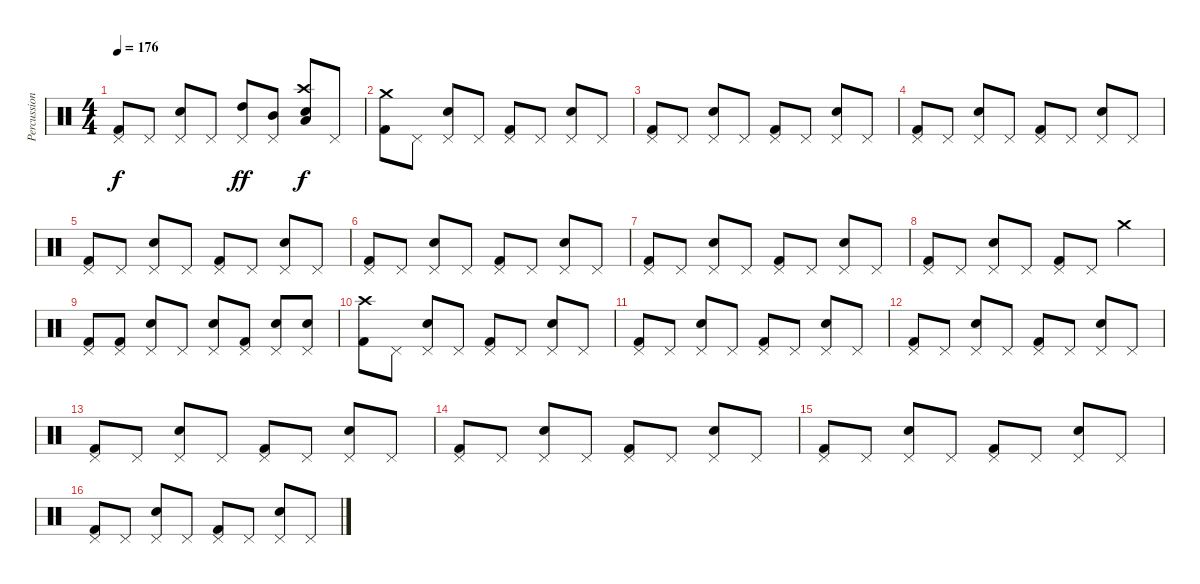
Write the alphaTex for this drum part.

\track ("Percussions" "Percussion") {instrument percussion}
\staff {score}
\articulation defaults
\ts (4 4)
\tempo 176
\clef neutral
\ks c
("Pedal Hi-Hat (hit)" "Kick (hit) 2").8{dy f} "Pedal Hi-Hat (hit)".8 ("Pedal Hi-Hat (hit)" "Electric Snare (hit)").8 "Pedal Hi-Hat (hit)".8 ("Pedal Hi-Hat (hit)" "High Tom (hit)").8{dy ff} ("Pedal Hi-Hat (hit)" "Mid Tom (hit)").8 ("Crash high (hit)" "Low Tom (hit)" "Electric Snare (hit)").8{dy f} "Pedal Hi-Hat (hit)".8 |
("Crash medium (hit)" "Kick (hit) 2").8 "Pedal Hi-Hat (hit)".8 ("Pedal Hi-Hat (hit)" "Electric Snare (hit)").8 "Pedal Hi-Hat (hit)".8 ("Pedal Hi-Hat (hit)" "Kick (hit) 2").8 "Pedal Hi-Hat (hit)".8 ("Pedal Hi-Hat (hit)" "Electric Snare (hit)").8 "Pedal Hi-Hat (hit)".8 |
("Pedal Hi-Hat (hit)" "Kick (hit) 2").8 "Pedal Hi-Hat (hit)".8 ("Pedal Hi-Hat (hit)" "Electric Snare (hit)").8 "Pedal Hi-Hat (hit)".8 ("Pedal Hi-Hat (hit)" "Kick (hit) 2").8 "Pedal Hi-Hat (hit)".8 ("Pedal Hi-Hat (hit)" "Electric Snare (hit)").8 "Pedal Hi-Hat (hit)".8 |
("Pedal Hi-Hat (hit)" "Kick (hit) 2").8 "Pedal Hi-Hat (hit)".8 ("Pedal Hi-Hat (hit)" "Electric Snare (hit)").8 "Pedal Hi-Hat (hit)".8 ("Pedal Hi-Hat (hit)" "Kick (hit) 2").8 "Pedal Hi-Hat (hit)".8 ("Pedal Hi-Hat (hit)" "Electric Snare (hit)").8 "Pedal Hi-Hat (hit)".8 |
("Pedal Hi-Hat (hit)" "Kick (hit) 2").8 "Pedal Hi-Hat (hit)".8 ("Pedal Hi-Hat (hit)" "Electric Snare (hit)").8 "Pedal Hi-Hat (hit)".8 ("Pedal Hi-Hat (hit)" "Kick (hit) 2").8 "Pedal Hi-Hat (hit)".8 ("Pedal Hi-Hat (hit)" "Electric Snare (hit)").8 "Pedal Hi-Hat (hit)".8 |
("Pedal Hi-Hat (hit)" "Kick (hit) 2").8 "Pedal Hi-Hat (hit)".8 ("Pedal Hi-Hat (hit)" "Electric Snare (hit)").8 "Pedal Hi-Hat (hit)".8 ("Pedal Hi-Hat (hit)" "Kick (hit) 2").8 "Pedal Hi-Hat (hit)".8 ("Pedal Hi-Hat (hit)" "Electric Snare (hit)").8 "Pedal Hi-Hat (hit)".8 |
("Pedal Hi-Hat (hit)" "Kick (hit) 2").8 "Pedal Hi-Hat (hit)".8 ("Pedal Hi-Hat (hit)" "Electric Snare (hit)").8 "Pedal Hi-Hat (hit)".8 ("Pedal Hi-Hat (hit)" "Kick (hit) 2").8 "Pedal Hi-Hat (hit)".8 ("Pedal Hi-Hat (hit)" "Electric Snare (hit)").8 "Pedal Hi-Hat (hit)".8 |
("Pedal Hi-Hat (hit)" "Kick (hit) 2").8 "Pedal Hi-Hat (hit)".8 ("Pedal Hi-Hat (hit)" "Electric Snare (hit)").8 "Pedal Hi-Hat (hit)".8 ("Pedal Hi-Hat (hit)" "Kick (hit) 2").8 "Pedal Hi-Hat (hit)".8 "Crash medium (hit)".4 |
("Pedal Hi-Hat (hit)" "Kick (hit) 2").8 ("Pedal Hi-Hat (hit)" "Kick (hit) 2").8 ("Pedal Hi-Hat (hit)" "Electric Snare (hit)").8 "Pedal Hi-Hat (hit)".8 ("Pedal Hi-Hat (hit)" "Electric Snare (hit)").8 ("Pedal Hi-Hat (hit)" "Kick (hit) 2").8 ("Pedal Hi-Hat (hit)" "Electric Snare (hit)").8 ("Pedal Hi-Hat (hit)" "Electric Snare (hit)").8 |
("Crash high (hit)" "Kick (hit) 2").8 "Pedal Hi-Hat (hit)".8 ("Pedal Hi-Hat (hit)" "Electric Snare (hit)").8 "Pedal Hi-Hat (hit)".8 ("Pedal Hi-Hat (hit)" "Kick (hit) 2").8 "Pedal Hi-Hat (hit)".8 ("Pedal Hi-Hat (hit)" "Electric Snare (hit)").8 "Pedal Hi-Hat (hit)".8 |
("Pedal Hi-Hat (hit)" "Kick (hit) 2").8 "Pedal Hi-Hat (hit)".8 ("Pedal Hi-Hat (hit)" "Electric Snare (hit)").8 "Pedal Hi-Hat (hit)".8 ("Pedal Hi-Hat (hit)" "Kick (hit) 2").8 "Pedal Hi-Hat (hit)".8 ("Pedal Hi-Hat (hit)" "Electric Snare (hit)").8 "Pedal Hi-Hat (hit)".8 |
("Pedal Hi-Hat (hit)" "Kick (hit) 2").8 "Pedal Hi-Hat (hit)".8 ("Pedal Hi-Hat (hit)" "Electric Snare (hit)").8 "Pedal Hi-Hat (hit)".8 ("Pedal Hi-Hat (hit)" "Kick (hit) 2").8 "Pedal Hi-Hat (hit)".8 ("Pedal Hi-Hat (hit)" "Electric Snare (hit)").8 "Pedal Hi-Hat (hit)".8 |
("Pedal Hi-Hat (hit)" "Kick (hit) 2").8 "Pedal Hi-Hat (hit)".8 ("Pedal Hi-Hat (hit)" "Electric Snare (hit)").8 "Pedal Hi-Hat (hit)".8 ("Pedal Hi-Hat (hit)" "Kick (hit) 2").8 "Pedal Hi-Hat (hit)".8 ("Pedal Hi-Hat (hit)" "Electric Snare (hit)").8 "Pedal Hi-Hat (hit)".8 |
("Pedal Hi-Hat (hit)" "Kick (hit) 2").8 "Pedal Hi-Hat (hit)".8 ("Pedal Hi-Hat (hit)" "Electric Snare (hit)").8 "Pedal Hi-Hat (hit)".8 ("Pedal Hi-Hat (hit)" "Kick (hit) 2").8 "Pedal Hi-Hat (hit)".8 ("Pedal Hi-Hat (hit)" "Electric Snare (hit)").8 "Pedal Hi-Hat (hit)".8 |
("Pedal Hi-Hat (hit)" "Kick (hit) 2").8 "Pedal Hi-Hat (hit)".8 ("Pedal Hi-Hat (hit)" "Electric Snare (hit)").8 "Pedal Hi-Hat (hit)".8 ("Pedal Hi-Hat (hit)" "Kick (hit) 2").8 "Pedal Hi-Hat (hit)".8 ("Pedal Hi-Hat (hit)" "Electric Snare (hit)").8 "Pedal Hi-Hat (hit)".8 |
("Pedal Hi-Hat (hit)" "Kick (hit) 2").8 "Pedal Hi-Hat (hit)".8 ("Pedal Hi-Hat (hit)" "Electric Snare (hit)").8 "Pedal Hi-Hat (hit)".8 ("Pedal Hi-Hat (hit)" "Kick (hit) 2").8 "Pedal Hi-Hat (hit)".8 ("Pedal Hi-Hat (hit)" "Electric Snare (hit)").8 "Pedal Hi-Hat (hit)".8
